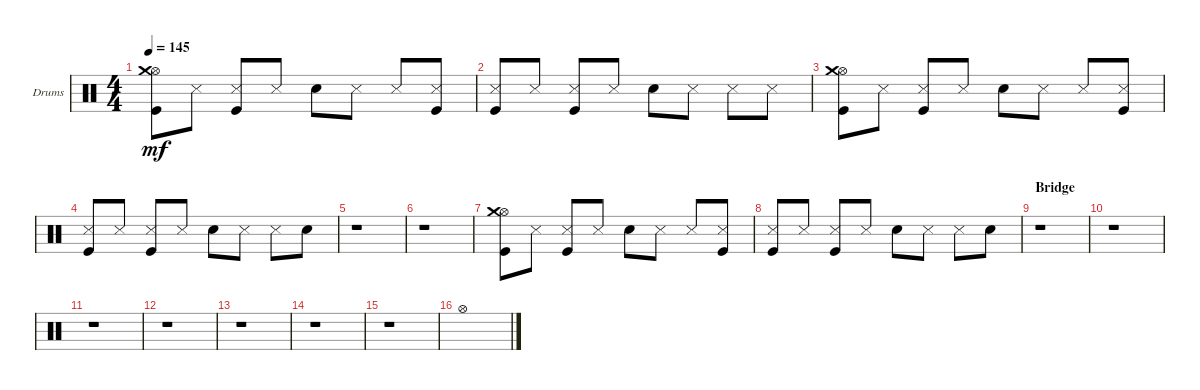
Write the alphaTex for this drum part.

\defaultSystemsLayout 4
\bracketExtendMode groupsimilarinstruments
\firstSystemTrackNameOrientation horizontal
\otherSystemsTrackNameOrientation horizontal
\track ("Matt Uychich" "Drums") {instrument percussion}
\staff {score}
\articulation defaults
\ts (4 4)
\tempo 145
\clef neutral
\scale
0.333333
\ks c
("Kick (hit)" "Hi-Hat (open)" "Crash medium (hit)").8{dy mf} "Snare (side stick) 3".8 ("Snare (side stick) 3" "Kick (hit)").8 "Snare (side stick) 3".8 "Snare (hit) 2".8 "Snare (side stick) 3".8 "Snare (side stick) 3".8 ("Snare (side stick) 3" "Kick (hit)").8 |
\scale
0.333333 ("Snare (side stick) 3" "Kick (hit)").8 "Snare (side stick) 3".8 ("Snare (side stick) 3" "Kick (hit)").8 "Snare (side stick) 3".8 "Snare (hit) 2".8 "Snare (side stick) 3".8 "Snare (side stick) 3".8 "Snare (side stick) 3".8 |
\scale
0.333333 ("Kick (hit)" "Hi-Hat (open)" "Crash medium (hit)").8 "Snare (side stick) 3".8 ("Snare (side stick) 3" "Kick (hit)").8 "Snare (side stick) 3".8 "Snare (hit) 2".8 "Snare (side stick) 3".8 "Snare (side stick) 3".8 ("Snare (side stick) 3" "Kick (hit)").8 |
\scale
0.333333 ("Snare (side stick) 3" "Kick (hit)").8 "Snare (side stick) 3".8 ("Snare (side stick) 3" "Kick (hit)").8 "Snare (side stick) 3".8 "Snare (hit) 2".8 "Snare (side stick) 3".8 "Snare (side stick) 3".8 "Snare (hit) 2".8 |
\scale
0.333333 r.1 |
\scale
0.333333 r.1 |
\scale
0.333333 ("Kick (hit)" "Hi-Hat (open)" "Crash medium (hit)").8 "Snare (side stick) 3".8 ("Snare (side stick) 3" "Kick (hit)").8 "Snare (side stick) 3".8 "Snare (hit) 2".8 "Snare (side stick) 3".8 "Snare (side stick) 3".8 ("Snare (side stick) 3" "Kick (hit)").8 |
\scale
0.333333 ("Snare (side stick) 3" "Kick (hit)").8 "Snare (side stick) 3".8 ("Snare (side stick) 3" "Kick (hit)").8 "Snare (side stick) 3".8 "Snare (hit) 2".8 "Snare (side stick) 3".8 "Snare (side stick) 3".8 "Snare (hit) 2".8 |
\section ("" "Bridge")
\scale
0.333333 r.1 |
\scale
0.333333 r.1 |
\scale
0.333333 r.1 |
\scale
0.333333 r.1 |
\scale
0.333333 r.1 |
\scale
0.333333 r.1 |
\scale
0.333333 r.1 |
\scale
0.333333 "Hi-Hat (open)".1
